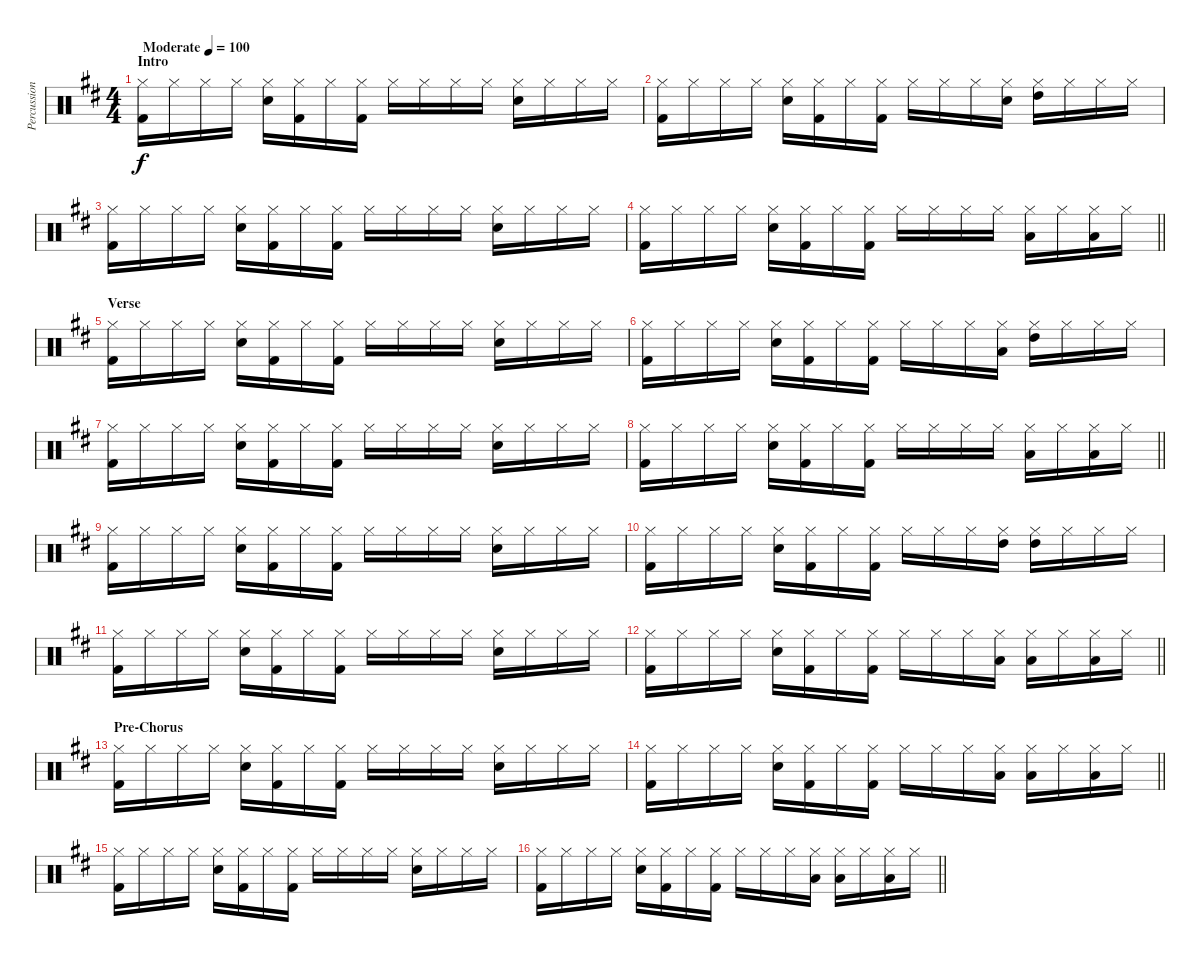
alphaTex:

\track ("Percussion" "Percussion") {instrument percussion}
\staff {score}
\articulation defaults
\ts (4 4)
\section ("" "Intro")
\tempo (100 "Moderate")
\clef neutral
\ks d
("Hi-Hat (closed)" "Kick (hit) 2").16{dy f} "Hi-Hat (closed)".16 "Hi-Hat (closed)".16 "Hi-Hat (closed)".16 ("Hi-Hat (closed)" "Snare (hit) 2").16 ("Hi-Hat (closed)" "Kick (hit) 2").16 "Hi-Hat (closed)".16 ("Hi-Hat (closed)" "Kick (hit) 2").16 "Hi-Hat (closed)".16 "Hi-Hat (closed)".16 "Hi-Hat (closed)".16 "Hi-Hat (closed)".16 ("Hi-Hat (closed)" "Snare (hit) 2").16 "Hi-Hat (closed)".16 "Hi-Hat (closed)".16 "Hi-Hat (closed)".16 |
("Hi-Hat (closed)" "Kick (hit) 2").16 "Hi-Hat (closed)".16 "Hi-Hat (closed)".16 "Hi-Hat (closed)".16 ("Hi-Hat (closed)" "Snare (hit) 2").16 ("Hi-Hat (closed)" "Kick (hit) 2").16 "Hi-Hat (closed)".16 ("Hi-Hat (closed)" "Kick (hit) 2").16 "Hi-Hat (closed)".16 "Hi-Hat (closed)".16 "Hi-Hat (closed)".16 ("Hi-Hat (closed)" "Snare (hit) 2").16 ("Hi-Hat (closed)" "High Tom (hit)").16 "Hi-Hat (closed)".16 "Hi-Hat (closed)".16 "Hi-Hat (closed)".16 |
("Hi-Hat (closed)" "Kick (hit) 2").16 "Hi-Hat (closed)".16 "Hi-Hat (closed)".16 "Hi-Hat (closed)".16 ("Hi-Hat (closed)" "Snare (hit) 2").16 ("Hi-Hat (closed)" "Kick (hit) 2").16 "Hi-Hat (closed)".16 ("Hi-Hat (closed)" "Kick (hit) 2").16 "Hi-Hat (closed)".16 "Hi-Hat (closed)".16 "Hi-Hat (closed)".16 "Hi-Hat (closed)".16 ("Hi-Hat (closed)" "Snare (hit) 2").16 "Hi-Hat (closed)".16 "Hi-Hat (closed)".16 "Hi-Hat (closed)".16 |
\barLineRight lightlight
("Hi-Hat (closed)" "Kick (hit) 2").16 "Hi-Hat (closed)".16 "Hi-Hat (closed)".16 "Hi-Hat (closed)".16 ("Hi-Hat (closed)" "Snare (hit) 2").16 ("Hi-Hat (closed)" "Kick (hit) 2").16 "Hi-Hat (closed)".16 ("Hi-Hat (closed)" "Kick (hit) 2").16 "Hi-Hat (closed)".16 "Hi-Hat (closed)".16 "Hi-Hat (closed)".16 "Hi-Hat (closed)".16 ("Hi-Hat (closed)" "Low Tom (hit)").16 "Hi-Hat (closed)".16 ("Hi-Hat (closed)" "Low Floor Tom (hit)").16 "Hi-Hat (closed)".16 |
\section ("" "Verse")
("Hi-Hat (closed)" "Kick (hit) 2").16 "Hi-Hat (closed)".16 "Hi-Hat (closed)".16 "Hi-Hat (closed)".16 ("Hi-Hat (closed)" "Snare (hit) 2").16 ("Hi-Hat (closed)" "Kick (hit) 2").16 "Hi-Hat (closed)".16 ("Hi-Hat (closed)" "Kick (hit) 2").16 "Hi-Hat (closed)".16 "Hi-Hat (closed)".16 "Hi-Hat (closed)".16 "Hi-Hat (closed)".16 ("Hi-Hat (closed)" "Snare (hit) 2").16 "Hi-Hat (closed)".16 "Hi-Hat (closed)".16 "Hi-Hat (closed)".16 |
("Hi-Hat (closed)" "Kick (hit) 2").16 "Hi-Hat (closed)".16 "Hi-Hat (closed)".16 "Hi-Hat (closed)".16 ("Hi-Hat (closed)" "Snare (hit) 2").16 ("Hi-Hat (closed)" "Kick (hit) 2").16 "Hi-Hat (closed)".16 ("Hi-Hat (closed)" "Kick (hit) 2").16 "Hi-Hat (closed)".16 "Hi-Hat (closed)".16 "Hi-Hat (closed)".16 ("Hi-Hat (closed)" "Low Tom (hit)").16 ("Hi-Hat (closed)" "High Tom (hit)").16 "Hi-Hat (closed)".16 "Hi-Hat (closed)".16 "Hi-Hat (closed)".16 |
("Hi-Hat (closed)" "Kick (hit) 2").16 "Hi-Hat (closed)".16 "Hi-Hat (closed)".16 "Hi-Hat (closed)".16 ("Hi-Hat (closed)" "Snare (hit) 2").16 ("Hi-Hat (closed)" "Kick (hit) 2").16 "Hi-Hat (closed)".16 ("Hi-Hat (closed)" "Kick (hit) 2").16 "Hi-Hat (closed)".16 "Hi-Hat (closed)".16 "Hi-Hat (closed)".16 "Hi-Hat (closed)".16 ("Hi-Hat (closed)" "Snare (hit) 2").16 "Hi-Hat (closed)".16 "Hi-Hat (closed)".16 "Hi-Hat (closed)".16 |
\barLineRight lightlight
("Hi-Hat (closed)" "Kick (hit) 2").16 "Hi-Hat (closed)".16 "Hi-Hat (closed)".16 "Hi-Hat (closed)".16 ("Hi-Hat (closed)" "Snare (hit) 2").16 ("Hi-Hat (closed)" "Kick (hit) 2").16 "Hi-Hat (closed)".16 ("Hi-Hat (closed)" "Kick (hit) 2").16 "Hi-Hat (closed)".16 "Hi-Hat (closed)".16 "Hi-Hat (closed)".16 "Hi-Hat (closed)".16 ("Hi-Hat (closed)" "Low Tom (hit)").16 "Hi-Hat (closed)".16 ("Hi-Hat (closed)" "Low Floor Tom (hit)").16 "Hi-Hat (closed)".16 |
("Hi-Hat (closed)" "Kick (hit) 2").16 "Hi-Hat (closed)".16 "Hi-Hat (closed)".16 "Hi-Hat (closed)".16 ("Hi-Hat (closed)" "Snare (hit) 2").16 ("Hi-Hat (closed)" "Kick (hit) 2").16 "Hi-Hat (closed)".16 ("Hi-Hat (closed)" "Kick (hit) 2").16 "Hi-Hat (closed)".16 "Hi-Hat (closed)".16 "Hi-Hat (closed)".16 "Hi-Hat (closed)".16 ("Hi-Hat (closed)" "Snare (hit) 2").16 "Hi-Hat (closed)".16 "Hi-Hat (closed)".16 "Hi-Hat (closed)".16 |
("Hi-Hat (closed)" "Kick (hit) 2").16 "Hi-Hat (closed)".16 "Hi-Hat (closed)".16 "Hi-Hat (closed)".16 ("Hi-Hat (closed)" "Snare (hit) 2").16 ("Hi-Hat (closed)" "Kick (hit) 2").16 "Hi-Hat (closed)".16 ("Hi-Hat (closed)" "Kick (hit) 2").16 "Hi-Hat (closed)".16 "Hi-Hat (closed)".16 "Hi-Hat (closed)".16 ("Hi-Hat (closed)" "High Tom (hit)").16 ("Hi-Hat (closed)" "High Tom (hit)").16 "Hi-Hat (closed)".16 "Hi-Hat (closed)".16 "Hi-Hat (closed)".16 |
("Hi-Hat (closed)" "Kick (hit) 2").16 "Hi-Hat (closed)".16 "Hi-Hat (closed)".16 "Hi-Hat (closed)".16 ("Hi-Hat (closed)" "Snare (hit) 2").16 ("Hi-Hat (closed)" "Kick (hit) 2").16 "Hi-Hat (closed)".16 ("Hi-Hat (closed)" "Kick (hit) 2").16 "Hi-Hat (closed)".16 "Hi-Hat (closed)".16 "Hi-Hat (closed)".16 "Hi-Hat (closed)".16 ("Hi-Hat (closed)" "Snare (hit) 2").16 "Hi-Hat (closed)".16 "Hi-Hat (closed)".16 "Hi-Hat (closed)".16 |
\barLineRight lightlight
("Hi-Hat (closed)" "Kick (hit) 2").16 "Hi-Hat (closed)".16 "Hi-Hat (closed)".16 "Hi-Hat (closed)".16 ("Hi-Hat (closed)" "Snare (hit) 2").16 ("Hi-Hat (closed)" "Kick (hit) 2").16 "Hi-Hat (closed)".16 ("Hi-Hat (closed)" "Kick (hit) 2").16 "Hi-Hat (closed)".16 "Hi-Hat (closed)".16 "Hi-Hat (closed)".16 ("Hi-Hat (closed)" "Low Tom (hit)").16 ("Hi-Hat (closed)" "Low Tom (hit)").16 "Hi-Hat (closed)".16 ("Hi-Hat (closed)" "Low Floor Tom (hit)").16 "Hi-Hat (closed)".16 |
\section ("" "Pre-Chorus")
("Hi-Hat (closed)" "Kick (hit) 2").16 "Hi-Hat (closed)".16 "Hi-Hat (closed)".16 "Hi-Hat (closed)".16 ("Hi-Hat (closed)" "Snare (hit) 2").16 ("Hi-Hat (closed)" "Kick (hit) 2").16 "Hi-Hat (closed)".16 ("Hi-Hat (closed)" "Kick (hit) 2").16 "Hi-Hat (closed)".16 "Hi-Hat (closed)".16 "Hi-Hat (closed)".16 "Hi-Hat (closed)".16 ("Hi-Hat (closed)" "Snare (hit) 2").16 "Hi-Hat (closed)".16 "Hi-Hat (closed)".16 "Hi-Hat (closed)".16 |
\barLineRight lightlight
("Hi-Hat (closed)" "Kick (hit) 2").16 "Hi-Hat (closed)".16 "Hi-Hat (closed)".16 "Hi-Hat (closed)".16 ("Hi-Hat (closed)" "Snare (hit) 2").16 ("Hi-Hat (closed)" "Kick (hit) 2").16 "Hi-Hat (closed)".16 ("Hi-Hat (closed)" "Kick (hit) 2").16 "Hi-Hat (closed)".16 "Hi-Hat (closed)".16 "Hi-Hat (closed)".16 ("Hi-Hat (closed)" "Low Tom (hit)").16 ("Hi-Hat (closed)" "Low Tom (hit)").16 "Hi-Hat (closed)".16 ("Hi-Hat (closed)" "Low Floor Tom (hit)").16 "Hi-Hat (closed)".16 |
("Hi-Hat (closed)" "Kick (hit) 2").16 "Hi-Hat (closed)".16 "Hi-Hat (closed)".16 "Hi-Hat (closed)".16 ("Hi-Hat (closed)" "Snare (hit) 2").16 ("Hi-Hat (closed)" "Kick (hit) 2").16 "Hi-Hat (closed)".16 ("Hi-Hat (closed)" "Kick (hit) 2").16 "Hi-Hat (closed)".16 "Hi-Hat (closed)".16 "Hi-Hat (closed)".16 "Hi-Hat (closed)".16 ("Hi-Hat (closed)" "Snare (hit) 2").16 "Hi-Hat (closed)".16 "Hi-Hat (closed)".16 "Hi-Hat (closed)".16 |
\barLineRight lightlight
("Hi-Hat (closed)" "Kick (hit) 2").16 "Hi-Hat (closed)".16 "Hi-Hat (closed)".16 "Hi-Hat (closed)".16 ("Hi-Hat (closed)" "Snare (hit) 2").16 ("Hi-Hat (closed)" "Kick (hit) 2").16 "Hi-Hat (closed)".16 ("Hi-Hat (closed)" "Kick (hit) 2").16 "Hi-Hat (closed)".16 "Hi-Hat (closed)".16 "Hi-Hat (closed)".16 ("Hi-Hat (closed)" "Low Tom (hit)").16 ("Hi-Hat (closed)" "Low Tom (hit)").16 "Hi-Hat (closed)".16 ("Hi-Hat (closed)" "Low Floor Tom (hit)").16 "Hi-Hat (closed)".16
